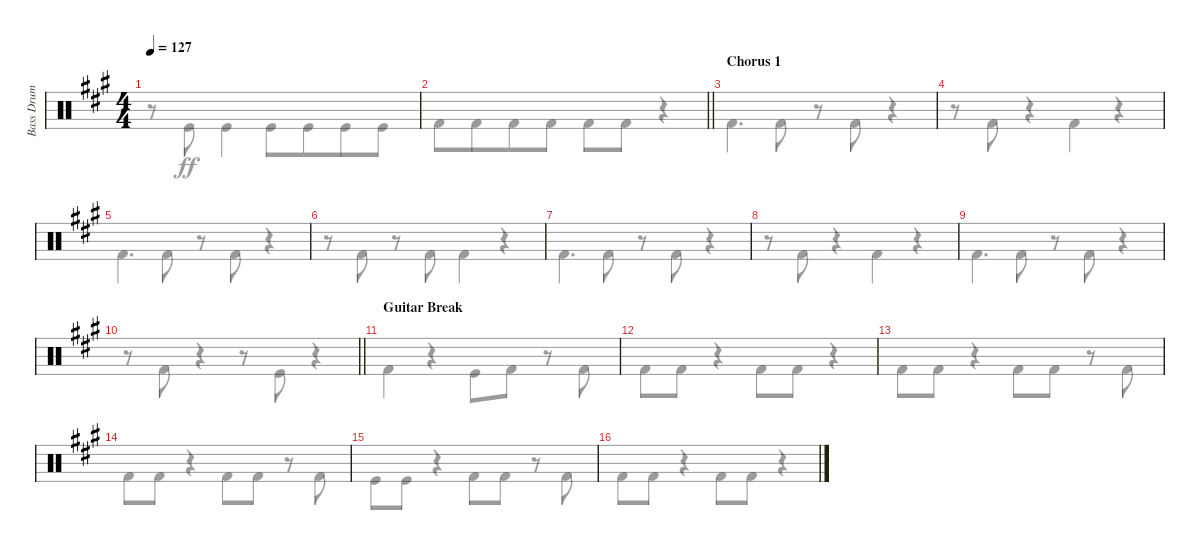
\track ("Bass Drum" "Bass Drum") {instrument percussion}
\staff {score}
\articulation defaults
\voice
\ts (4 4)
\tempo 127
\clef neutral
\ks a
|
\barLineRight lightlight
|
\section ("" "Chorus 1")
|
|
|
|
|
|
|
\barLineRight lightlight
|
\section ("" "Guitar Break")
|
|
|
|
|
\voice
\clef neutral
\ks a
r.8{dy ff} "Kick (hit)".8 "Kick (hit)".4 "Kick (hit)".8 "Kick (hit)".8{beam merge} "Kick (hit)".8 "Kick (hit)".8 |
\barLineRight lightlight "Kick (hit) 2".8 "Kick (hit) 2".8{beam merge} "Kick (hit) 2".8 "Kick (hit) 2".8 "Kick (hit) 2".8 "Kick (hit) 2".8
r.4 |
"Kick (hit) 2".4{d} "Kick (hit) 2".8 r.8 "Kick (hit) 2".8 r.4 |
r.8 "Kick (hit) 2".8 r.4 "Kick (hit) 2".4 r.4 |
"Kick (hit) 2".4{d} "Kick (hit) 2".8 r.8 "Kick (hit) 2".8 r.4 |
r.8 "Kick (hit) 2".8 r.8 "Kick (hit) 2".8 "Kick (hit) 2".4 r.4 |
"Kick (hit) 2".4{d} "Kick (hit) 2".8 r.8 "Kick (hit) 2".8 r.4 |
r.8 "Kick (hit) 2".8 r.4 "Kick (hit) 2".4 r.4 |
"Kick (hit) 2".4{d} "Kick (hit) 2".8 r.8 "Kick (hit) 2".8 r.4 |
\barLineRight lightlight
r.8 "Kick (hit) 2".8 r.4 r.8 "Kick (hit)".8 r.4 |
"Kick (hit) 2".4 r.4 "Kick (hit)".8 "Kick (hit) 2".8 r.8 "Kick (hit) 2".8 |
"Kick (hit) 2".8 "Kick (hit) 2".8 r.4 "Kick (hit) 2".8 "Kick (hit) 2".8 r.4 |
"Kick (hit) 2".8 "Kick (hit) 2".8 r.4 "Kick (hit) 2".8 "Kick (hit) 2".8 r.8 "Kick (hit) 2".8 |
"Kick (hit) 2".8 "Kick (hit) 2".8 r.4 "Kick (hit) 2".8 "Kick (hit) 2".8 r.8 "Kick (hit) 2".8 |
"Kick (hit)".8 "Kick (hit)".8 r.4 "Kick (hit) 2".8 "Kick (hit) 2".8 r.8 "Kick (hit) 2".8 |
"Kick (hit) 2".8 "Kick (hit) 2".8 r.4 "Kick (hit) 2".8 "Kick (hit) 2".8 r.4
